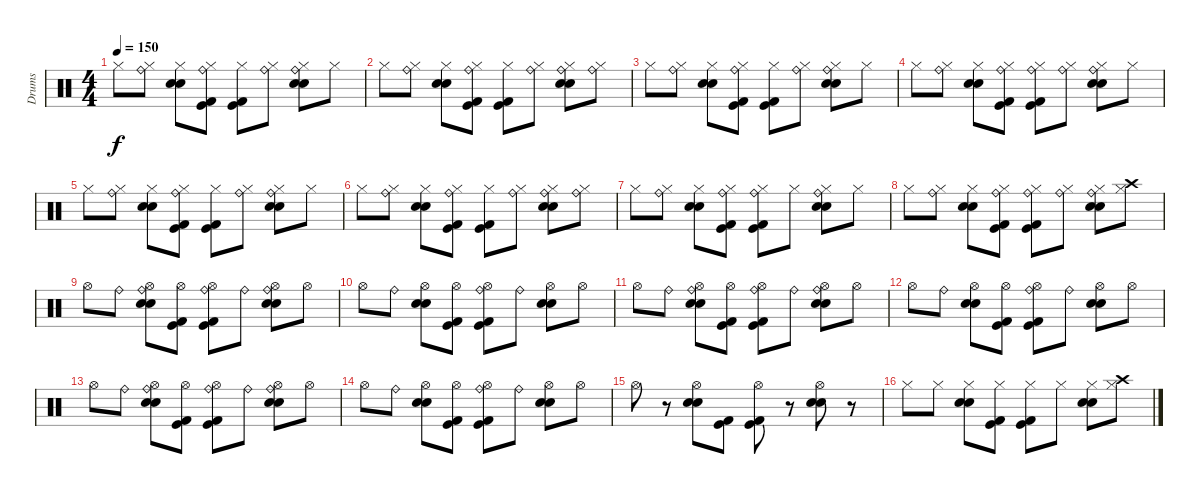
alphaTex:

\track ("Drums" "Drums") {instrument percussion}
\staff {score}
\articulation defaults
\ts (4 4)
\tempo 150
\clef neutral
\ks c "Hi-Hat (closed)".8{dy f}
("Hi-Hat (closed)" "Ride (bell)").8 ("Hi-Hat (closed)" "Snare (hit) 2" "Electric Snare (hit)").8 ("Hi-Hat (closed)" "Ride (bell)" "Kick (hit) 2" "Kick (hit)").8 ("Hi-Hat (closed)" "Kick (hit) 2" "Kick (hit)").8 ("Hi-Hat (closed)" "Ride (bell)").8 ("Hi-Hat (closed)" "Ride (bell)" "Snare (hit) 2" "Electric Snare (hit)").8 "Hi-Hat (closed)".8 |
"Hi-Hat (closed)".8 ("Hi-Hat (closed)" "Ride (bell)").8 ("Hi-Hat (closed)" "Snare (hit) 2" "Electric Snare (hit)").8 ("Hi-Hat (closed)" "Ride (bell)" "Kick (hit) 2" "Kick (hit)").8 ("Hi-Hat (closed)" "Kick (hit) 2" "Kick (hit)").8 ("Hi-Hat (closed)" "Ride (bell)").8 ("Hi-Hat (closed)" "Ride (bell)" "Snare (hit) 2" "Electric Snare (hit)").8 ("Hi-Hat (closed)" "Ride (bell)").8 |
"Hi-Hat (closed)".8 ("Hi-Hat (closed)" "Ride (bell)").8 ("Hi-Hat (closed)" "Snare (hit) 2" "Electric Snare (hit)").8 ("Hi-Hat (closed)" "Ride (bell)" "Kick (hit) 2" "Kick (hit)").8 ("Hi-Hat (closed)" "Kick (hit) 2" "Kick (hit)").8 ("Hi-Hat (closed)" "Ride (bell)").8 ("Hi-Hat (closed)" "Ride (bell)" "Snare (hit) 2" "Electric Snare (hit)").8 "Hi-Hat (closed)".8 |
"Hi-Hat (closed)".8 ("Hi-Hat (closed)" "Ride (bell)").8 ("Hi-Hat (closed)" "Snare (hit) 2" "Electric Snare (hit)").8 ("Hi-Hat (closed)" "Ride (bell)" "Kick (hit) 2" "Kick (hit)").8 ("Hi-Hat (closed)" "Ride (bell)" "Kick (hit) 2" "Kick (hit)").8 ("Hi-Hat (closed)" "Ride (bell)").8 ("Hi-Hat (closed)" "Ride (bell)" "Snare (hit) 2" "Electric Snare (hit)").8 "Hi-Hat (closed)".8 |
"Hi-Hat (closed)".8 ("Hi-Hat (closed)" "Ride (bell)").8 ("Hi-Hat (closed)" "Snare (hit) 2" "Electric Snare (hit)").8 ("Hi-Hat (closed)" "Ride (bell)" "Kick (hit) 2" "Kick (hit)").8 ("Hi-Hat (closed)" "Kick (hit) 2" "Kick (hit)").8 ("Hi-Hat (closed)" "Ride (bell)").8 ("Hi-Hat (closed)" "Ride (bell)" "Snare (hit) 2" "Electric Snare (hit)").8 "Hi-Hat (closed)".8 |
"Hi-Hat (closed)".8 ("Hi-Hat (closed)" "Ride (bell)").8 ("Hi-Hat (closed)" "Snare (hit) 2" "Electric Snare (hit)").8 ("Hi-Hat (closed)" "Ride (bell)" "Kick (hit) 2" "Kick (hit)").8 ("Hi-Hat (closed)" "Kick (hit) 2" "Kick (hit)").8 ("Hi-Hat (closed)" "Ride (bell)").8 ("Hi-Hat (closed)" "Ride (bell)" "Snare (hit) 2" "Electric Snare (hit)").8 ("Hi-Hat (closed)" "Ride (bell)").8 |
"Hi-Hat (closed)".8 ("Hi-Hat (closed)" "Ride (bell)").8 ("Hi-Hat (closed)" "Snare (hit) 2" "Electric Snare (hit)").8 ("Hi-Hat (closed)" "Ride (bell)" "Kick (hit) 2" "Kick (hit)").8 ("Hi-Hat (closed)" "Ride (bell)" "Kick (hit) 2" "Kick (hit)").8 "Hi-Hat (closed)".8 ("Hi-Hat (closed)" "Ride (bell)" "Snare (hit) 2" "Electric Snare (hit)").8 "Hi-Hat (closed)".8 |
"Hi-Hat (closed)".8 ("Hi-Hat (closed)" "Ride (bell)").8 ("Hi-Hat (closed)" "Snare (hit) 2" "Electric Snare (hit)").8 ("Hi-Hat (closed)" "Ride (bell)" "Kick (hit) 2" "Kick (hit)").8 ("Hi-Hat (closed)" "Ride (bell)" "Kick (hit) 2" "Kick (hit)").8 ("Hi-Hat (closed)" "Ride (bell)").8 ("Hi-Hat (closed)" "Ride (bell)" "Snare (hit) 2" "Electric Snare (hit)").8 ("Hi-Hat (closed)" "Crash high (hit)").8 |
"Hi-Hat (open)".8 "Ride (bell)".8 ("Hi-Hat (open)" "Ride (bell)" "Snare (hit) 2" "Electric Snare (hit)").8 ("Hi-Hat (open)" "Kick (hit) 2" "Kick (hit)").8 ("Hi-Hat (open)" "Ride (bell)" "Kick (hit) 2" "Kick (hit)").8 "Ride (bell)".8 ("Hi-Hat (open)" "Ride (bell)" "Snare (hit) 2" "Electric Snare (hit)").8 "Hi-Hat (open)".8 |
"Hi-Hat (open)".8 "Ride (bell)".8 ("Hi-Hat (open)" "Snare (hit) 2" "Electric Snare (hit)").8 ("Hi-Hat (open)" "Kick (hit) 2" "Kick (hit)").8 ("Hi-Hat (open)" "Ride (bell)" "Kick (hit) 2" "Kick (hit)").8 "Ride (bell)".8 ("Hi-Hat (open)" "Snare (hit) 2" "Electric Snare (hit)").8 "Hi-Hat (open)".8 |
"Hi-Hat (open)".8 "Ride (bell)".8 ("Hi-Hat (open)" "Ride (bell)" "Snare (hit) 2" "Electric Snare (hit)").8 ("Hi-Hat (open)" "Kick (hit) 2" "Kick (hit)").8 ("Hi-Hat (open)" "Ride (bell)" "Kick (hit) 2" "Kick (hit)").8 "Ride (bell)".8 ("Hi-Hat (open)" "Ride (bell)" "Snare (hit) 2" "Electric Snare (hit)").8 "Hi-Hat (open)".8 |
"Hi-Hat (open)".8 "Ride (bell)".8 ("Hi-Hat (open)" "Snare (hit) 2" "Electric Snare (hit)").8 ("Hi-Hat (open)" "Kick (hit) 2" "Kick (hit)").8 ("Hi-Hat (open)" "Ride (bell)" "Kick (hit) 2" "Kick (hit)").8 "Ride (bell)".8 ("Hi-Hat (open)" "Snare (hit) 2" "Electric Snare (hit)").8 "Hi-Hat (open)".8 |
"Hi-Hat (open)".8 "Ride (bell)".8 ("Hi-Hat (open)" "Ride (bell)" "Snare (hit) 2" "Electric Snare (hit)").8 ("Hi-Hat (open)" "Kick (hit) 2" "Kick (hit)").8 ("Hi-Hat (open)" "Ride (bell)" "Kick (hit) 2" "Kick (hit)").8 "Ride (bell)".8 ("Hi-Hat (open)" "Ride (bell)" "Snare (hit) 2" "Electric Snare (hit)").8 "Hi-Hat (open)".8 |
"Hi-Hat (open)".8 "Ride (bell)".8 ("Hi-Hat (open)" "Snare (hit) 2" "Electric Snare (hit)").8 ("Hi-Hat (open)" "Kick (hit) 2" "Kick (hit)").8 ("Hi-Hat (open)" "Ride (bell)" "Kick (hit) 2" "Kick (hit)").8 "Ride (bell)".8 ("Hi-Hat (open)" "Snare (hit) 2" "Electric Snare (hit)").8 "Hi-Hat (open)".8 |
"Hi-Hat (open)".8 r.8 ("Hi-Hat (open)" "Snare (hit) 2" "Electric Snare (hit)").8 ("Kick (hit) 2" "Kick (hit)").8 ("Hi-Hat (open)" "Kick (hit) 2" "Kick (hit)").8 r.8 ("Hi-Hat (open)" "Snare (hit) 2" "Electric Snare (hit)").8 r.8 |
"Hi-Hat (closed)".8 "Hi-Hat (closed)".8 ("Hi-Hat (closed)" "Snare (hit) 2" "Electric Snare (hit)").8 ("Hi-Hat (closed)" "Kick (hit) 2" "Kick (hit)").8 ("Hi-Hat (closed)" "Kick (hit) 2" "Kick (hit)").8 "Hi-Hat (closed)".8 ("Hi-Hat (closed)" "Snare (hit) 2" "Electric Snare (hit)").8 ("Hi-Hat (closed)" "Crash high (hit)").8
